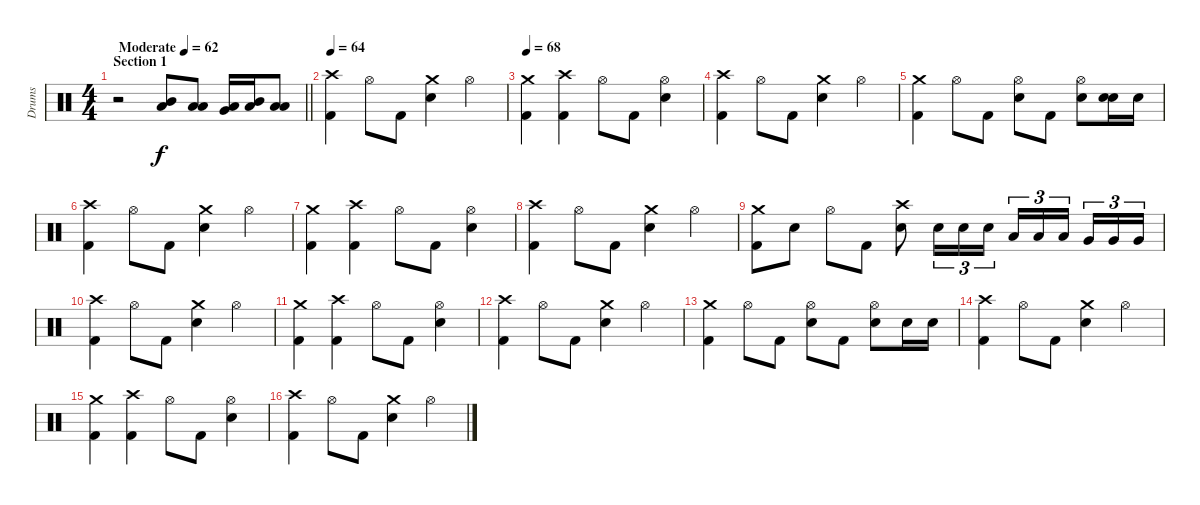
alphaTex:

\track ("Drums" "Drums") {instrument percussion}
\staff {score}
\articulation defaults
\ts (4 4)
\section ("" "Section 1")
\tempo (62 "Moderate")
\tempo 54
\tempo (62 "Moderate")
\clef neutral
\barLineRight lightlight
\ks c
r.2{dy f} ("Mid Tom (hit)" "Low Tom (hit)").8 ("Low Tom (hit)" "Low Tom (hit)").8 ("Very Low Tom (hit)" "Low Floor Tom (hit)").16 ("Mid Tom (hit)" "Low Floor Tom (hit)").16 ("Low Tom (hit)" "Low Floor Tom (hit)").8 |
\tempo 64
("Crash high (hit)" "Kick (hit) 2").4 "Hi-Hat (open)".8 "Kick (hit) 2".8 ("Crash medium (hit)" "Electric Snare (hit)").4 "Hi-Hat (open)".4 |
\tempo 68
("Crash medium (hit)" "Kick (hit) 2").4 ("Crash high (hit)" "Kick (hit) 2").4 "Hi-Hat (open)".8 "Kick (hit) 2".8 ("Hi-Hat (open)" "Electric Snare (hit)").4 |
("Crash high (hit)" "Kick (hit) 2").4 "Hi-Hat (open)".8 "Kick (hit) 2".8 ("Crash medium (hit)" "Electric Snare (hit)").4 "Hi-Hat (open)".4 |
("Crash medium (hit)" "Kick (hit) 2").4 "Hi-Hat (open)".8 "Kick (hit) 2".8 ("Hi-Hat (open)" "Electric Snare (hit)").8 "Kick (hit) 2".8 ("Hi-Hat (open)" "Electric Snare (hit)").8 ("Electric Snare (hit)" "Electric Snare (hit)").16{bu 60} "Electric Snare (hit)".16 |
("Crash high (hit)" "Kick (hit) 2").4 "Hi-Hat (open)".8 "Kick (hit) 2".8 ("Crash medium (hit)" "Electric Snare (hit)").4 "Hi-Hat (open)".4 |
("Crash medium (hit)" "Kick (hit) 2").4 ("Crash high (hit)" "Kick (hit) 2").4 "Hi-Hat (open)".8 "Kick (hit) 2".8 ("Hi-Hat (open)" "Electric Snare (hit)").4 |
("Crash high (hit)" "Kick (hit) 2").4 "Hi-Hat (open)".8 "Kick (hit) 2".8 ("Crash medium (hit)" "Electric Snare (hit)").4 "Hi-Hat (open)".4 |
("Crash medium (hit)" "Kick (hit) 2").8 "Electric Snare (hit)".8 "Hi-Hat (open)".8 "Kick (hit) 2".8 ("Crash high (hit)" "Electric Snare (hit)").8 "Electric Snare (hit)".16{tu (3 2)} "Electric Snare (hit)".16{tu (3 2)} "Electric Snare (hit)".16{tu (3 2)} "Low Tom (hit)".16{tu (3 2)} "Low Tom (hit)".16{tu (3 2)} "Low Tom (hit)".16{tu (3 2) beam splitsecondary} "Very Low Tom (hit)".16{tu (3 2)} "Very Low Tom (hit)".16{tu (3 2)} "Very Low Tom (hit)".16{tu (3 2)} |
("Crash high (hit)" "Kick (hit) 2").4 "Hi-Hat (open)".8 "Kick (hit) 2".8 ("Crash medium (hit)" "Electric Snare (hit)").4 "Hi-Hat (open)".4 |
("Crash medium (hit)" "Kick (hit) 2").4 ("Crash high (hit)" "Kick (hit) 2").4 "Hi-Hat (open)".8 "Kick (hit) 2".8 ("Hi-Hat (open)" "Electric Snare (hit)").4 |
("Crash high (hit)" "Kick (hit) 2").4 "Hi-Hat (open)".8 "Kick (hit) 2".8 ("Crash medium (hit)" "Electric Snare (hit)").4 "Hi-Hat (open)".4 |
("Crash medium (hit)" "Kick (hit) 2").4 "Hi-Hat (open)".8 "Kick (hit) 2".8 ("Hi-Hat (open)" "Electric Snare (hit)").8 "Kick (hit) 2".8 ("Hi-Hat (open)" "Electric Snare (hit)").8 "Electric Snare (hit)".16 "Electric Snare (hit)".16 |
("Crash high (hit)" "Kick (hit) 2").4 "Hi-Hat (open)".8 "Kick (hit) 2".8 ("Crash medium (hit)" "Electric Snare (hit)").4 "Hi-Hat (open)".4 |
("Crash medium (hit)" "Kick (hit) 2").4 ("Crash high (hit)" "Kick (hit) 2").4 "Hi-Hat (open)".8 "Kick (hit) 2".8 ("Hi-Hat (open)" "Electric Snare (hit)").4 |
("Crash high (hit)" "Kick (hit) 2").4 "Hi-Hat (open)".8 "Kick (hit) 2".8 ("Crash medium (hit)" "Electric Snare (hit)").4 "Hi-Hat (open)".4
